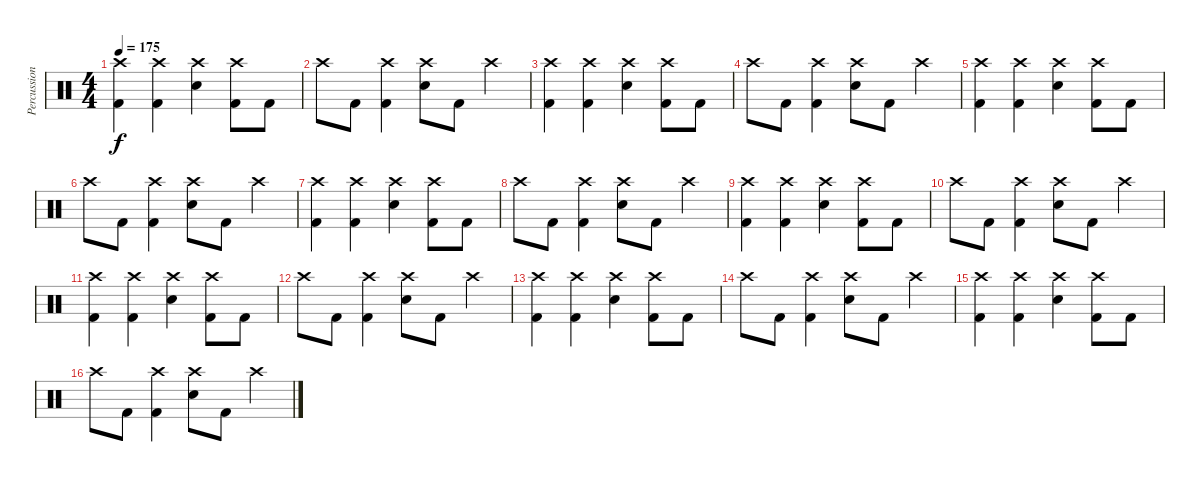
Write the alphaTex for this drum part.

\track ("Percussion" "Percussion") {instrument percussion}
\staff {score}
\articulation defaults
\ts (4 4)
\tempo 175
\clef neutral
\ks c
("Crash high (hit)" "Kick (hit) 2").4{dy f} ("Crash high (hit)" "Kick (hit) 2").4 ("Crash high (hit)" "Snare (hit) 2").4 ("Crash high (hit)" "Kick (hit) 2").8 "Kick (hit) 2".8 |
"Crash high (hit)".8 "Kick (hit) 2".8 ("Crash high (hit)" "Kick (hit) 2").4 ("Crash high (hit)" "Snare (hit) 2").8 "Kick (hit) 2".8 "Crash high (hit)".4 |
("Crash high (hit)" "Kick (hit) 2").4 ("Crash high (hit)" "Kick (hit) 2").4 ("Crash high (hit)" "Snare (hit) 2").4 ("Crash high (hit)" "Kick (hit) 2").8 "Kick (hit) 2".8 |
"Crash high (hit)".8 "Kick (hit) 2".8 ("Crash high (hit)" "Kick (hit) 2").4 ("Crash high (hit)" "Snare (hit) 2").8 "Kick (hit) 2".8 "Crash high (hit)".4 |
("Crash high (hit)" "Kick (hit) 2").4 ("Crash high (hit)" "Kick (hit) 2").4 ("Crash high (hit)" "Snare (hit) 2").4 ("Crash high (hit)" "Kick (hit) 2").8 "Kick (hit) 2".8 |
"Crash high (hit)".8 "Kick (hit) 2".8 ("Crash high (hit)" "Kick (hit) 2").4 ("Crash high (hit)" "Snare (hit) 2").8 "Kick (hit) 2".8 "Crash high (hit)".4 |
("Crash high (hit)" "Kick (hit) 2").4 ("Crash high (hit)" "Kick (hit) 2").4 ("Crash high (hit)" "Snare (hit) 2").4 ("Crash high (hit)" "Kick (hit) 2").8 "Kick (hit) 2".8 |
"Crash high (hit)".8 "Kick (hit) 2".8 ("Crash high (hit)" "Kick (hit) 2").4 ("Crash high (hit)" "Snare (hit) 2").8 "Kick (hit) 2".8 "Crash high (hit)".4 |
("Crash high (hit)" "Kick (hit) 2").4 ("Crash high (hit)" "Kick (hit) 2").4 ("Crash high (hit)" "Snare (hit) 2").4 ("Crash high (hit)" "Kick (hit) 2").8 "Kick (hit) 2".8 |
"Crash high (hit)".8 "Kick (hit) 2".8 ("Crash high (hit)" "Kick (hit) 2").4 ("Crash high (hit)" "Snare (hit) 2").8 "Kick (hit) 2".8 "Crash high (hit)".4 |
("Crash high (hit)" "Kick (hit) 2").4 ("Crash high (hit)" "Kick (hit) 2").4 ("Crash high (hit)" "Snare (hit) 2").4 ("Crash high (hit)" "Kick (hit) 2").8 "Kick (hit) 2".8 |
"Crash high (hit)".8 "Kick (hit) 2".8 ("Crash high (hit)" "Kick (hit) 2").4 ("Crash high (hit)" "Snare (hit) 2").8 "Kick (hit) 2".8 "Crash high (hit)".4 |
("Crash high (hit)" "Kick (hit) 2").4 ("Crash high (hit)" "Kick (hit) 2").4 ("Crash high (hit)" "Snare (hit) 2").4 ("Crash high (hit)" "Kick (hit) 2").8 "Kick (hit) 2".8 |
"Crash high (hit)".8 "Kick (hit) 2".8 ("Crash high (hit)" "Kick (hit) 2").4 ("Crash high (hit)" "Snare (hit) 2").8 "Kick (hit) 2".8 "Crash high (hit)".4 |
("Crash high (hit)" "Kick (hit) 2").4 ("Crash high (hit)" "Kick (hit) 2").4 ("Crash high (hit)" "Snare (hit) 2").4 ("Crash high (hit)" "Kick (hit) 2").8 "Kick (hit) 2".8 |
"Crash high (hit)".8 "Kick (hit) 2".8 ("Crash high (hit)" "Kick (hit) 2").4 ("Crash high (hit)" "Snare (hit) 2").8 "Kick (hit) 2".8 "Crash high (hit)".4
